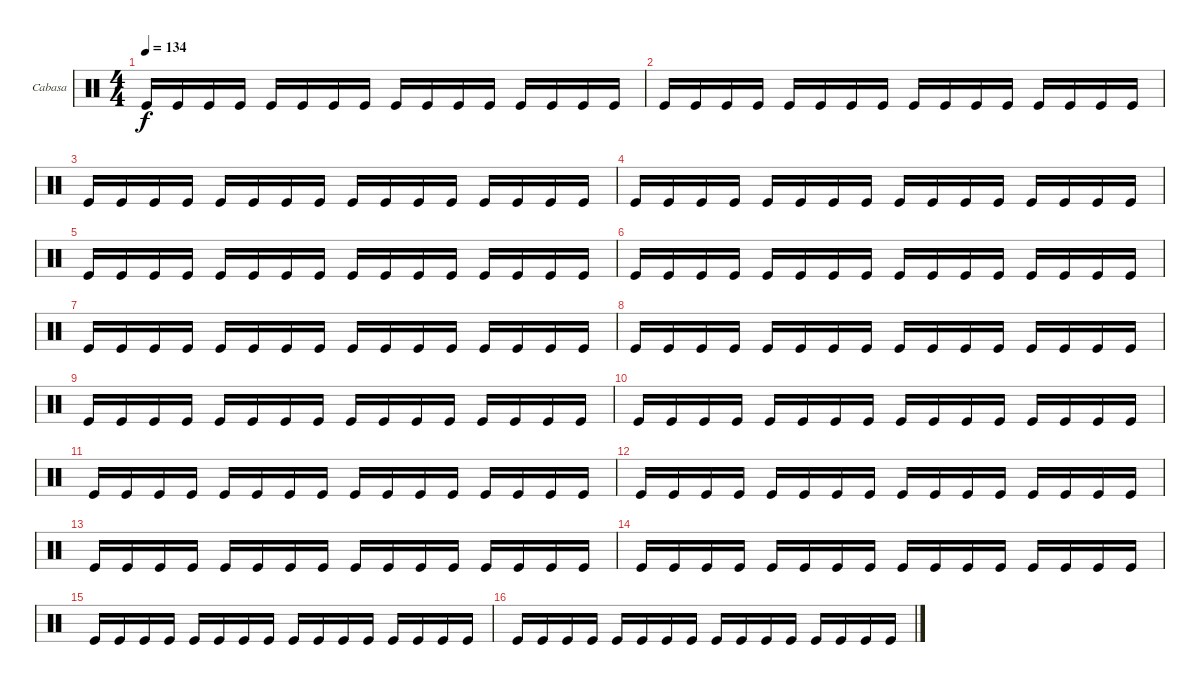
\bracketExtendMode groupsimilarinstruments
\firstSystemTrackNameOrientation horizontal
\otherSystemsTrackNameOrientation horizontal
\track ("Cabasa" "Cabasa") {instrument percussion}
\staff {score}
\articulation defaults
\ts (4 4)
\scale
0.254768
\tempo 134
\accidentals auto
\clef neutral
\ottava regular
\simile none
\ks c "Kick (hit)".16{dy f} "Kick (hit)".16 "Kick (hit)".16 "Kick (hit)".16 "Kick (hit)".16 "Kick (hit)".16 "Kick (hit)".16 "Kick (hit)".16 "Kick (hit)".16 "Kick (hit)".16 "Kick (hit)".16 "Kick (hit)".16 "Kick (hit)".16 "Kick (hit)".16 "Kick (hit)".16 "Kick (hit)".16
|
\scale
0.245232 "Kick (hit)".16 "Kick (hit)".16 "Kick (hit)".16 "Kick (hit)".16 "Kick (hit)".16 "Kick (hit)".16 "Kick (hit)".16 "Kick (hit)".16 "Kick (hit)".16 "Kick (hit)".16 "Kick (hit)".16 "Kick (hit)".16 "Kick (hit)".16 "Kick (hit)".16 "Kick (hit)".16 "Kick (hit)".16 |
\scale
0.254768 "Kick (hit)".16 "Kick (hit)".16 "Kick (hit)".16 "Kick (hit)".16 "Kick (hit)".16 "Kick (hit)".16 "Kick (hit)".16 "Kick (hit)".16 "Kick (hit)".16 "Kick (hit)".16 "Kick (hit)".16 "Kick (hit)".16 "Kick (hit)".16 "Kick (hit)".16 "Kick (hit)".16 "Kick (hit)".16 |
\scale
0.245232 "Kick (hit)".16 "Kick (hit)".16 "Kick (hit)".16 "Kick (hit)".16 "Kick (hit)".16 "Kick (hit)".16 "Kick (hit)".16 "Kick (hit)".16 "Kick (hit)".16 "Kick (hit)".16 "Kick (hit)".16 "Kick (hit)".16 "Kick (hit)".16 "Kick (hit)".16 "Kick (hit)".16 "Kick (hit)".16 |
\scale
0.254768 "Kick (hit)".16 "Kick (hit)".16 "Kick (hit)".16 "Kick (hit)".16 "Kick (hit)".16 "Kick (hit)".16 "Kick (hit)".16 "Kick (hit)".16 "Kick (hit)".16 "Kick (hit)".16 "Kick (hit)".16 "Kick (hit)".16 "Kick (hit)".16 "Kick (hit)".16 "Kick (hit)".16 "Kick (hit)".16 |
\scale
0.245232 "Kick (hit)".16 "Kick (hit)".16 "Kick (hit)".16 "Kick (hit)".16 "Kick (hit)".16 "Kick (hit)".16 "Kick (hit)".16 "Kick (hit)".16 "Kick (hit)".16 "Kick (hit)".16 "Kick (hit)".16 "Kick (hit)".16 "Kick (hit)".16 "Kick (hit)".16 "Kick (hit)".16 "Kick (hit)".16 |
\scale
0.254768 "Kick (hit)".16 "Kick (hit)".16 "Kick (hit)".16 "Kick (hit)".16 "Kick (hit)".16 "Kick (hit)".16 "Kick (hit)".16 "Kick (hit)".16 "Kick (hit)".16 "Kick (hit)".16 "Kick (hit)".16 "Kick (hit)".16 "Kick (hit)".16 "Kick (hit)".16 "Kick (hit)".16 "Kick (hit)".16 |
\scale
0.245232 "Kick (hit)".16 "Kick (hit)".16 "Kick (hit)".16 "Kick (hit)".16 "Kick (hit)".16 "Kick (hit)".16 "Kick (hit)".16 "Kick (hit)".16 "Kick (hit)".16 "Kick (hit)".16 "Kick (hit)".16 "Kick (hit)".16 "Kick (hit)".16 "Kick (hit)".16 "Kick (hit)".16 "Kick (hit)".16 |
\scale
0.254768 "Kick (hit)".16 "Kick (hit)".16 "Kick (hit)".16 "Kick (hit)".16 "Kick (hit)".16 "Kick (hit)".16 "Kick (hit)".16 "Kick (hit)".16 "Kick (hit)".16 "Kick (hit)".16 "Kick (hit)".16 "Kick (hit)".16 "Kick (hit)".16 "Kick (hit)".16 "Kick (hit)".16 "Kick (hit)".16 |
\scale
0.245232 "Kick (hit)".16 "Kick (hit)".16 "Kick (hit)".16 "Kick (hit)".16 "Kick (hit)".16 "Kick (hit)".16 "Kick (hit)".16 "Kick (hit)".16 "Kick (hit)".16 "Kick (hit)".16 "Kick (hit)".16 "Kick (hit)".16 "Kick (hit)".16 "Kick (hit)".16 "Kick (hit)".16 "Kick (hit)".16 |
"Kick (hit)".16 "Kick (hit)".16 "Kick (hit)".16 "Kick (hit)".16 "Kick (hit)".16 "Kick (hit)".16 "Kick (hit)".16 "Kick (hit)".16 "Kick (hit)".16 "Kick (hit)".16 "Kick (hit)".16 "Kick (hit)".16 "Kick (hit)".16 "Kick (hit)".16 "Kick (hit)".16 "Kick (hit)".16 |
"Kick (hit)".16 "Kick (hit)".16 "Kick (hit)".16 "Kick (hit)".16 "Kick (hit)".16 "Kick (hit)".16 "Kick (hit)".16 "Kick (hit)".16 "Kick (hit)".16 "Kick (hit)".16 "Kick (hit)".16 "Kick (hit)".16 "Kick (hit)".16 "Kick (hit)".16 "Kick (hit)".16 "Kick (hit)".16 |
"Kick (hit)".16 "Kick (hit)".16 "Kick (hit)".16 "Kick (hit)".16 "Kick (hit)".16 "Kick (hit)".16 "Kick (hit)".16 "Kick (hit)".16 "Kick (hit)".16 "Kick (hit)".16 "Kick (hit)".16 "Kick (hit)".16 "Kick (hit)".16 "Kick (hit)".16 "Kick (hit)".16 "Kick (hit)".16 |
"Kick (hit)".16 "Kick (hit)".16 "Kick (hit)".16 "Kick (hit)".16 "Kick (hit)".16 "Kick (hit)".16 "Kick (hit)".16 "Kick (hit)".16 "Kick (hit)".16 "Kick (hit)".16 "Kick (hit)".16 "Kick (hit)".16 "Kick (hit)".16 "Kick (hit)".16 "Kick (hit)".16 "Kick (hit)".16 |
"Kick (hit)".16 "Kick (hit)".16 "Kick (hit)".16 "Kick (hit)".16 "Kick (hit)".16 "Kick (hit)".16 "Kick (hit)".16 "Kick (hit)".16 "Kick (hit)".16 "Kick (hit)".16 "Kick (hit)".16 "Kick (hit)".16 "Kick (hit)".16 "Kick (hit)".16 "Kick (hit)".16 "Kick (hit)".16 |
"Kick (hit)".16 "Kick (hit)".16 "Kick (hit)".16 "Kick (hit)".16 "Kick (hit)".16 "Kick (hit)".16 "Kick (hit)".16 "Kick (hit)".16 "Kick (hit)".16 "Kick (hit)".16 "Kick (hit)".16 "Kick (hit)".16 "Kick (hit)".16 "Kick (hit)".16 "Kick (hit)".16 "Kick (hit)".16
